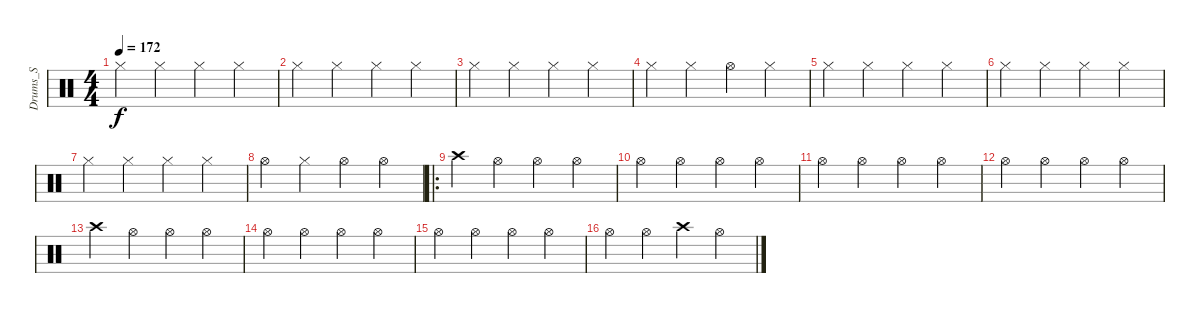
\track ("Drums_S" "Drums_S") {instrument percussion}
\staff {score}
\articulation defaults
\ts (4 4)
\tempo 172
\clef neutral
\ks c "Hi-Hat (closed)".4{dy f} "Hi-Hat (closed)".4 "Hi-Hat (closed)".4 "Hi-Hat (closed)".4
|
"Hi-Hat (closed)".4 "Hi-Hat (closed)".4 "Hi-Hat (closed)".4 "Hi-Hat (closed)".4 |
"Hi-Hat (closed)".4 "Hi-Hat (closed)".4 "Hi-Hat (closed)".4 "Hi-Hat (closed)".4 |
"Hi-Hat (closed)".4 "Hi-Hat (closed)".4 "Hi-Hat (open)".4 "Hi-Hat (closed)".4 |
"Hi-Hat (closed)".4 "Hi-Hat (closed)".4 "Hi-Hat (closed)".4 "Hi-Hat (closed)".4 |
"Hi-Hat (closed)".4 "Hi-Hat (closed)".4 "Hi-Hat (closed)".4 "Hi-Hat (closed)".4 |
"Hi-Hat (closed)".4 "Hi-Hat (closed)".4 "Hi-Hat (closed)".4 "Hi-Hat (closed)".4 |
"Hi-Hat (open)".4 "Hi-Hat (closed)".4 "Hi-Hat (open)".4 "Hi-Hat (open)".4 |
\ro "Crash high (hit)".4 "Hi-Hat (open)".4 "Hi-Hat (open)".4 "Hi-Hat (open)".4
|
"Hi-Hat (open)".4 "Hi-Hat (open)".4 "Hi-Hat (open)".4 "Hi-Hat (open)".4 |
"Hi-Hat (open)".4 "Hi-Hat (open)".4 "Hi-Hat (open)".4 "Hi-Hat (open)".4 |
"Hi-Hat (open)".4 "Hi-Hat (open)".4 "Hi-Hat (open)".4 "Hi-Hat (open)".4 |
"Crash high (hit)".4 "Hi-Hat (open)".4 "Hi-Hat (open)".4 "Hi-Hat (open)".4 |
"Hi-Hat (open)".4 "Hi-Hat (open)".4 "Hi-Hat (open)".4 "Hi-Hat (open)".4 |
"Hi-Hat (open)".4 "Hi-Hat (open)".4 "Hi-Hat (open)".4 "Hi-Hat (open)".4 |
"Hi-Hat (open)".4 "Hi-Hat (open)".4 "Crash high (hit)".4 "Hi-Hat (open)".4
